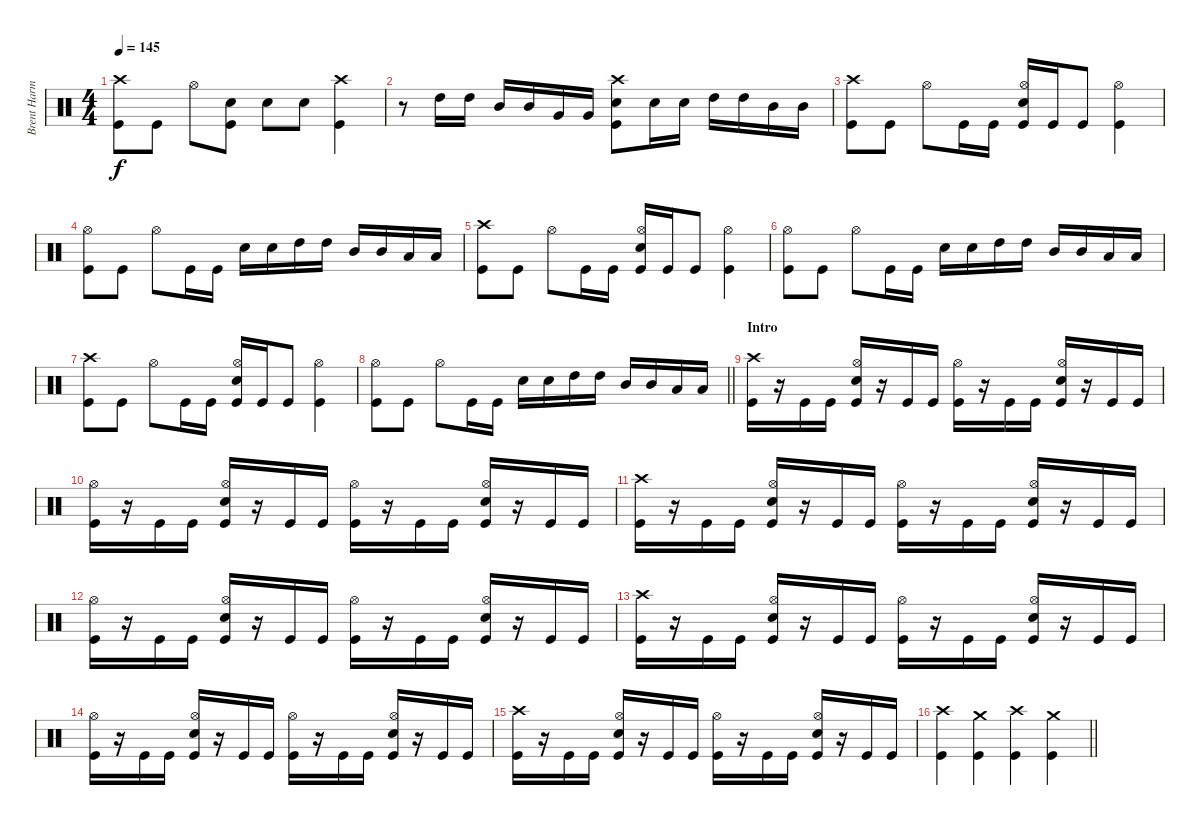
\track ("Brent Harman" "Brent Harm") {instrument percussion}
\staff {score}
\articulation defaults
\ts (4 4)
\tempo 145
\clef neutral
\ks c
("Crash high (hit)" "Kick (hit)").8{dy f} "Kick (hit)".8 "Hi-Hat (open)".8 ("Snare (hit) 2" "Kick (hit)").8 "Snare (hit) 2".8 "Snare (hit) 2".8 ("Crash high (hit)" "Kick (hit)").4 |
r.8 "High Tom (hit)".16 "High Tom (hit)".16 "Mid Tom (hit)".16 "Mid Tom (hit)".16 "Very Low Tom (hit)".16 "Very Low Tom (hit)".16 ("Crash high (hit)" "Snare (hit) 2" "Kick (hit)").8 "Snare (hit) 2".16 "Snare (hit) 2".16 "High Tom (hit)".16 "High Tom (hit)".16 "Mid Tom (hit)".16 "Mid Tom (hit)".16 |
("Crash high (hit)" "Kick (hit)").8 "Kick (hit)".8 "Hi-Hat (open)".8 "Kick (hit)".16 "Kick (hit)".16 ("Hi-Hat (open)" "Snare (hit) 2" "Kick (hit)").16 "Kick (hit)".16 "Kick (hit)".8 ("Hi-Hat (open)" "Kick (hit)").4 |
("Hi-Hat (open)" "Kick (hit)").8 "Kick (hit)".8 "Hi-Hat (open)".8 "Kick (hit)".16 "Kick (hit)".16 "Snare (hit) 2".16 "Snare (hit) 2".16 "High Tom (hit)".16 "High Tom (hit)".16 "Mid Tom (hit)".16 "Mid Tom (hit)".16 "Low Tom (hit)".16 "Low Tom (hit)".16 |
("Crash high (hit)" "Kick (hit)").8 "Kick (hit)".8 "Hi-Hat (open)".8 "Kick (hit)".16 "Kick (hit)".16 ("Hi-Hat (open)" "Snare (hit) 2" "Kick (hit)").16 "Kick (hit)".16 "Kick (hit)".8 ("Hi-Hat (open)" "Kick (hit)").4 |
("Hi-Hat (open)" "Kick (hit)").8 "Kick (hit)".8 "Hi-Hat (open)".8 "Kick (hit)".16 "Kick (hit)".16 "Snare (hit) 2".16 "Snare (hit) 2".16 "High Tom (hit)".16 "High Tom (hit)".16 "Mid Tom (hit)".16 "Mid Tom (hit)".16 "Low Tom (hit)".16 "Low Tom (hit)".16 |
("Crash high (hit)" "Kick (hit)").8 "Kick (hit)".8 "Hi-Hat (open)".8 "Kick (hit)".16 "Kick (hit)".16 ("Hi-Hat (open)" "Snare (hit) 2" "Kick (hit)").16 "Kick (hit)".16 "Kick (hit)".8 ("Hi-Hat (open)" "Kick (hit)").4 |
\barLineRight lightlight
("Hi-Hat (open)" "Kick (hit)").8 "Kick (hit)".8 "Hi-Hat (open)".8 "Kick (hit)".16 "Kick (hit)".16 "Snare (hit) 2".16 "Snare (hit) 2".16 "High Tom (hit)".16 "High Tom (hit)".16 "Mid Tom (hit)".16 "Mid Tom (hit)".16 "Low Tom (hit)".16 "Low Tom (hit)".16 |
\section ("" "Intro")
("Crash high (hit)" "Kick (hit)").16 r.16 "Kick (hit)".16 "Kick (hit)".16 ("Hi-Hat (open)" "Snare (hit) 2" "Kick (hit)").16 r.16 "Kick (hit)".16 "Kick (hit)".16 ("Hi-Hat (open)" "Kick (hit)").16 r.16 "Kick (hit)".16 "Kick (hit)".16 ("Hi-Hat (open)" "Snare (hit) 2" "Kick (hit)").16 r.16 "Kick (hit)".16 "Kick (hit)".16 |
("Hi-Hat (open)" "Kick (hit)").16 r.16 "Kick (hit)".16 "Kick (hit)".16 ("Hi-Hat (open)" "Snare (hit) 2" "Kick (hit)").16 r.16 "Kick (hit)".16 "Kick (hit)".16 ("Hi-Hat (open)" "Kick (hit)").16 r.16 "Kick (hit)".16 "Kick (hit)".16 ("Hi-Hat (open)" "Snare (hit) 2" "Kick (hit)").16 r.16 "Kick (hit)".16 "Kick (hit)".16 |
("Crash high (hit)" "Kick (hit)").16 r.16 "Kick (hit)".16 "Kick (hit)".16 ("Hi-Hat (open)" "Snare (hit) 2" "Kick (hit)").16 r.16 "Kick (hit)".16 "Kick (hit)".16 ("Hi-Hat (open)" "Kick (hit)").16 r.16 "Kick (hit)".16 "Kick (hit)".16 ("Hi-Hat (open)" "Snare (hit) 2" "Kick (hit)").16 r.16 "Kick (hit)".16 "Kick (hit)".16 |
("Hi-Hat (open)" "Kick (hit)").16 r.16 "Kick (hit)".16 "Kick (hit)".16 ("Hi-Hat (open)" "Snare (hit) 2" "Kick (hit)").16 r.16 "Kick (hit)".16 "Kick (hit)".16 ("Hi-Hat (open)" "Kick (hit)").16 r.16 "Kick (hit)".16 "Kick (hit)".16 ("Hi-Hat (open)" "Snare (hit) 2" "Kick (hit)").16 r.16 "Kick (hit)".16 "Kick (hit)".16 |
("Crash high (hit)" "Kick (hit)").16 r.16 "Kick (hit)".16 "Kick (hit)".16 ("Hi-Hat (open)" "Snare (hit) 2" "Kick (hit)").16 r.16 "Kick (hit)".16 "Kick (hit)".16 ("Hi-Hat (open)" "Kick (hit)").16 r.16 "Kick (hit)".16 "Kick (hit)".16 ("Hi-Hat (open)" "Snare (hit) 2" "Kick (hit)").16 r.16 "Kick (hit)".16 "Kick (hit)".16 |
("Hi-Hat (open)" "Kick (hit)").16 r.16 "Kick (hit)".16 "Kick (hit)".16 ("Hi-Hat (open)" "Snare (hit) 2" "Kick (hit)").16 r.16 "Kick (hit)".16 "Kick (hit)".16 ("Hi-Hat (open)" "Kick (hit)").16 r.16 "Kick (hit)".16 "Kick (hit)".16 ("Hi-Hat (open)" "Snare (hit) 2" "Kick (hit)").16 r.16 "Kick (hit)".16 "Kick (hit)".16 |
("Crash high (hit)" "Kick (hit)").16 r.16 "Kick (hit)".16 "Kick (hit)".16 ("Hi-Hat (open)" "Snare (hit) 2" "Kick (hit)").16 r.16 "Kick (hit)".16 "Kick (hit)".16 ("Hi-Hat (open)" "Kick (hit)").16 r.16 "Kick (hit)".16 "Kick (hit)".16 ("Hi-Hat (open)" "Snare (hit) 2" "Kick (hit)").16 r.16 "Kick (hit)".16 "Kick (hit)".16 |
\barLineRight lightlight
("Crash high (hit)" "Kick (hit)").4 ("Crash medium (hit)" "Kick (hit)").4 ("Crash high (hit)" "Kick (hit)").4 ("Crash medium (hit)" "Kick (hit)").4
